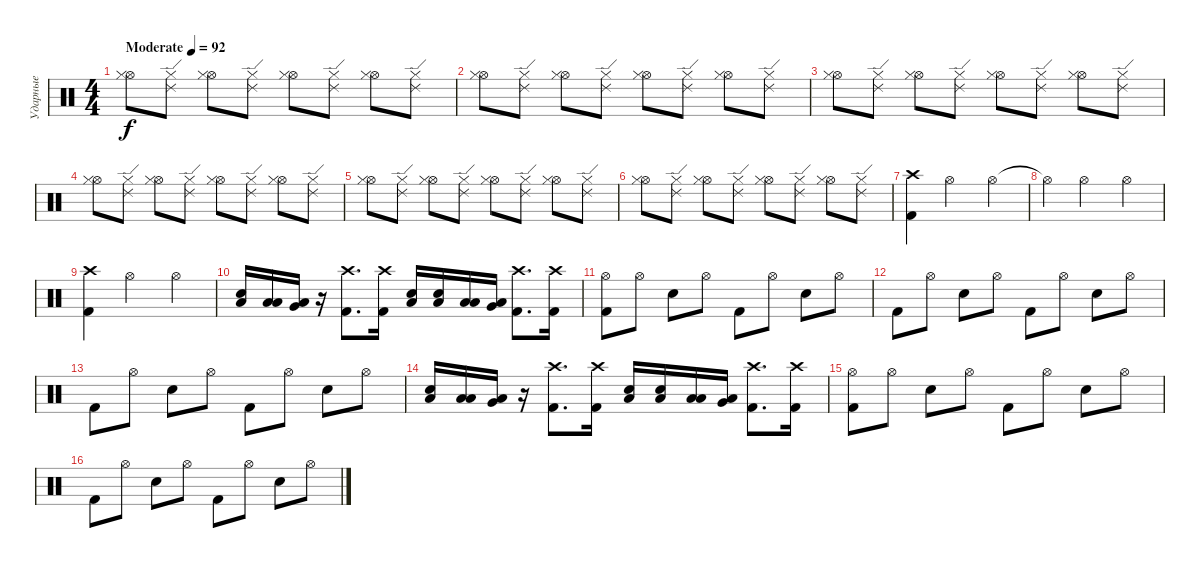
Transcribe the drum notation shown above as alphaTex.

\track ("Ударные" "Ударные") {instrument percussion}
\staff {score}
\articulation defaults
\ts (4 4)
\tempo (92 "Moderate")
\clef neutral
\ks c
("Hi-Hat (open)" "Hi-Hat (closed)").8{dy f} ("Hi-Hat (closed)" "Ride (edge) 2").8 ("Hi-Hat (open)" "Hi-Hat (closed)").8 ("Hi-Hat (closed)" "Ride (edge) 2").8 ("Hi-Hat (open)" "Hi-Hat (closed)").8 ("Hi-Hat (closed)" "Ride (edge) 2").8 ("Hi-Hat (open)" "Hi-Hat (closed)").8 ("Hi-Hat (closed)" "Ride (edge) 2").8 |
("Hi-Hat (open)" "Hi-Hat (closed)").8 ("Hi-Hat (closed)" "Ride (edge) 2").8 ("Hi-Hat (open)" "Hi-Hat (closed)").8 ("Hi-Hat (closed)" "Ride (edge) 2").8 ("Hi-Hat (open)" "Hi-Hat (closed)").8 ("Hi-Hat (closed)" "Ride (edge) 2").8 ("Hi-Hat (open)" "Hi-Hat (closed)").8 ("Hi-Hat (closed)" "Ride (edge) 2").8 |
("Hi-Hat (open)" "Hi-Hat (closed)").8 ("Hi-Hat (closed)" "Ride (edge) 2").8 ("Hi-Hat (open)" "Hi-Hat (closed)").8 ("Hi-Hat (closed)" "Ride (edge) 2").8 ("Hi-Hat (open)" "Hi-Hat (closed)").8 ("Hi-Hat (closed)" "Ride (edge) 2").8 ("Hi-Hat (open)" "Hi-Hat (closed)").8 ("Hi-Hat (closed)" "Ride (edge) 2").8 |
("Hi-Hat (open)" "Hi-Hat (closed)").8 ("Hi-Hat (closed)" "Ride (edge) 2").8 ("Hi-Hat (open)" "Hi-Hat (closed)").8 ("Hi-Hat (closed)" "Ride (edge) 2").8 ("Hi-Hat (open)" "Hi-Hat (closed)").8 ("Hi-Hat (closed)" "Ride (edge) 2").8 ("Hi-Hat (open)" "Hi-Hat (closed)").8 ("Hi-Hat (closed)" "Ride (edge) 2").8 |
("Hi-Hat (open)" "Hi-Hat (closed)").8 ("Hi-Hat (closed)" "Ride (edge) 2").8 ("Hi-Hat (open)" "Hi-Hat (closed)").8 ("Hi-Hat (closed)" "Ride (edge) 2").8 ("Hi-Hat (open)" "Hi-Hat (closed)").8 ("Hi-Hat (closed)" "Ride (edge) 2").8 ("Hi-Hat (open)" "Hi-Hat (closed)").8 ("Hi-Hat (closed)" "Ride (edge) 2").8 |
("Hi-Hat (open)" "Hi-Hat (closed)").8 ("Hi-Hat (closed)" "Ride (edge) 2").8 ("Hi-Hat (open)" "Hi-Hat (closed)").8 ("Hi-Hat (closed)" "Ride (edge) 2").8 ("Hi-Hat (open)" "Hi-Hat (closed)").8 ("Hi-Hat (closed)" "Ride (edge) 2").8 ("Hi-Hat (open)" "Hi-Hat (closed)").8 ("Hi-Hat (closed)" "Ride (edge) 2").8 |
("Kick (hit) 2" "Crash high (hit)").4 "Hi-Hat (open)".2 "Hi-Hat (open)".4 |
"Hi-Hat (open)"{t}.4 "Hi-Hat (open)".2 "Hi-Hat (open)".4 |
("Kick (hit) 2" "Crash high (hit)").4 "Hi-Hat (open)".2 "Hi-Hat (open)".4 |
("Snare (hit) 2" "Low Floor Tom (hit)").16 ("Low Tom (hit)" "Low Floor Tom (hit)").16 ("Very Low Tom (hit)" "Low Floor Tom (hit)").16 r.16 ("Kick (hit) 2" "Crash high (hit)").8{d} ("Kick (hit) 2" "Crash high (hit)").16 ("Snare (hit) 2" "Low Floor Tom (hit)").16 ("Snare (hit) 2" "Low Floor Tom (hit)").16 ("Low Tom (hit)" "Low Floor Tom (hit)").16 ("Very Low Tom (hit)" "Low Floor Tom (hit)").16 ("Kick (hit) 2" "Crash high (hit)").8{d} ("Kick (hit) 2" "Crash high (hit)").16 |
("Kick (hit) 2" "Hi-Hat (open)").8 "Hi-Hat (open)".8 "Snare (hit) 2".8 "Hi-Hat (open)".8 "Kick (hit) 2".8 "Hi-Hat (open)".8 "Snare (hit) 2".8 "Hi-Hat (open)".8 |
"Kick (hit) 2".8 "Hi-Hat (open)".8 "Snare (hit) 2".8 "Hi-Hat (open)".8 "Kick (hit) 2".8 "Hi-Hat (open)".8 "Snare (hit) 2".8 "Hi-Hat (open)".8 |
"Kick (hit) 2".8 "Hi-Hat (open)".8 "Snare (hit) 2".8 "Hi-Hat (open)".8 "Kick (hit) 2".8 "Hi-Hat (open)".8 "Snare (hit) 2".8 "Hi-Hat (open)".8 |
("Snare (hit) 2" "Low Floor Tom (hit)").16 ("Low Tom (hit)" "Low Floor Tom (hit)").16 ("Very Low Tom (hit)" "Low Floor Tom (hit)").16 r.16 ("Kick (hit) 2" "Crash high (hit)").8{d} ("Kick (hit) 2" "Crash high (hit)").16 ("Snare (hit) 2" "Low Floor Tom (hit)").16 ("Snare (hit) 2" "Low Floor Tom (hit)").16 ("Low Tom (hit)" "Low Floor Tom (hit)").16 ("Very Low Tom (hit)" "Low Floor Tom (hit)").16 ("Kick (hit) 2" "Crash high (hit)").8{d} ("Kick (hit) 2" "Crash high (hit)").16 |
("Kick (hit) 2" "Hi-Hat (open)").8 "Hi-Hat (open)".8 "Snare (hit) 2".8 "Hi-Hat (open)".8 "Kick (hit) 2".8 "Hi-Hat (open)".8 "Snare (hit) 2".8 "Hi-Hat (open)".8 |
"Kick (hit) 2".8 "Hi-Hat (open)".8 "Snare (hit) 2".8 "Hi-Hat (open)".8 "Kick (hit) 2".8 "Hi-Hat (open)".8 "Snare (hit) 2".8 "Hi-Hat (open)".8
